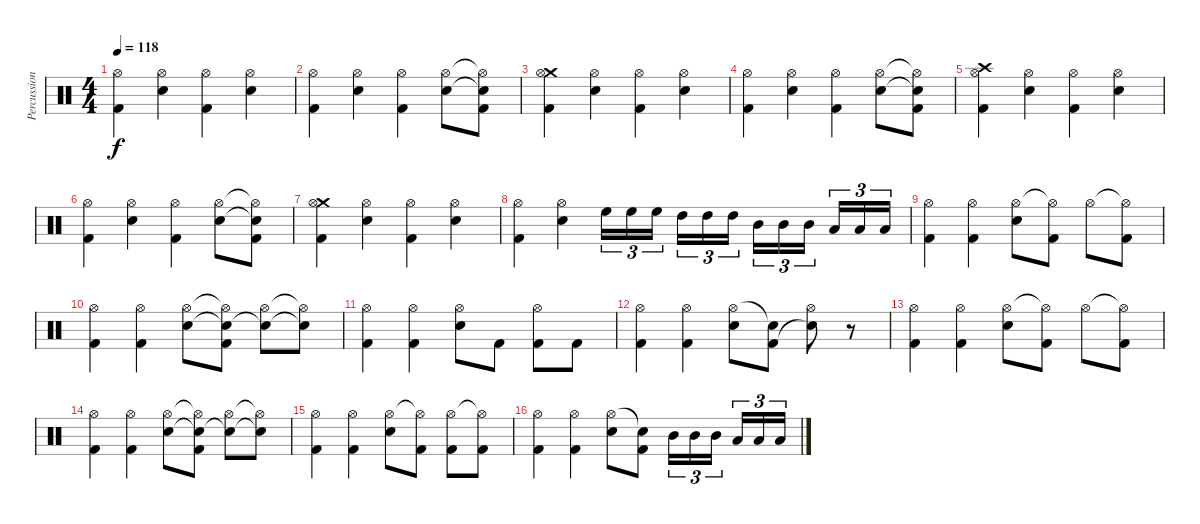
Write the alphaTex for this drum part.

\track ("Percussion" "Percussion") {instrument percussion}
\staff {score}
\articulation defaults
\ts (4 4)
\tempo 118
\clef neutral
\ks c
("Hi-Hat (open)" "Kick (hit) 2").4{dy f} ("Hi-Hat (open)" "Electric Snare (hit)").4 ("Hi-Hat (open)" "Kick (hit) 2").4 ("Hi-Hat (open)" "Electric Snare (hit)").4 |
("Hi-Hat (open)" "Kick (hit) 2").4 ("Hi-Hat (open)" "Electric Snare (hit)").4 ("Hi-Hat (open)" "Kick (hit) 2").4 ("Hi-Hat (open)" "Electric Snare (hit)").8 ("Hi-Hat (open)"{t} "Electric Snare (hit)"{t} "Kick (hit) 2").8 |
("Crash medium (hit)" "Hi-Hat (open)" "Kick (hit) 2").4 ("Hi-Hat (open)" "Electric Snare (hit)").4 ("Hi-Hat (open)" "Kick (hit) 2").4 ("Hi-Hat (open)" "Electric Snare (hit)").4 |
("Hi-Hat (open)" "Kick (hit) 2").4 ("Hi-Hat (open)" "Electric Snare (hit)").4 ("Hi-Hat (open)" "Kick (hit) 2").4 ("Hi-Hat (open)" "Electric Snare (hit)").8 ("Hi-Hat (open)"{t} "Electric Snare (hit)"{t} "Kick (hit) 2").8 |
("Crash high (hit)" "Hi-Hat (open)" "Kick (hit) 2").4 ("Hi-Hat (open)" "Electric Snare (hit)").4 ("Hi-Hat (open)" "Kick (hit) 2").4 ("Hi-Hat (open)" "Electric Snare (hit)").4 |
("Hi-Hat (open)" "Kick (hit) 2").4 ("Hi-Hat (open)" "Electric Snare (hit)").4 ("Hi-Hat (open)" "Kick (hit) 2").4 ("Hi-Hat (open)" "Electric Snare (hit)").8 ("Hi-Hat (open)"{t} "Electric Snare (hit)"{t} "Kick (hit) 2").8 |
("Crash medium (hit)" "Hi-Hat (open)" "Kick (hit) 2").4 ("Hi-Hat (open)" "Electric Snare (hit)").4 ("Hi-Hat (open)" "Kick (hit) 2").4 ("Hi-Hat (open)" "Electric Snare (hit)").4 |
("Hi-Hat (open)" "Kick (hit) 2").4 ("Hi-Hat (open)" "Electric Snare (hit)").4 "High Floor Tom (hit)".16{tu (3 2)} "High Floor Tom (hit)".16{tu (3 2)} "High Floor Tom (hit)".16{tu (3 2)} "High Tom (hit)".16{tu (3 2)} "High Tom (hit)".16{tu (3 2)} "High Tom (hit)".16{tu (3 2)} "Mid Tom (hit)".16{tu (3 2)} "Mid Tom (hit)".16{tu (3 2)} "Mid Tom (hit)".16{tu (3 2)} "Low Tom (hit)".16{tu (3 2)} "Low Tom (hit)".16{tu (3 2)} "Low Tom (hit)".16{tu (3 2)} |
("Hi-Hat (open)" "Kick (hit) 2").4 ("Hi-Hat (open)" "Kick (hit) 2").4 ("Hi-Hat (open)" "Electric Snare (hit)").8 ("Hi-Hat (open)"{t} "Kick (hit) 2").8 "Hi-Hat (open)".8 ("Hi-Hat (open)"{t} "Kick (hit) 2").8 |
("Hi-Hat (open)" "Kick (hit) 2").4 ("Hi-Hat (open)" "Kick (hit) 2").4 ("Hi-Hat (open)" "Electric Snare (hit)").8 ("Hi-Hat (open)"{t} "Electric Snare (hit)"{t} "Kick (hit) 2").8 ("Hi-Hat (open)" "Electric Snare (hit)"{t}).8 ("Hi-Hat (open)"{t} "Electric Snare (hit)"{t}).8 |
("Hi-Hat (open)" "Kick (hit) 2").4 ("Hi-Hat (open)" "Kick (hit) 2").4 ("Hi-Hat (open)" "Electric Snare (hit)").8 "Kick (hit) 2".8 ("Hi-Hat (open)" "Kick (hit) 2").8 "Kick (hit) 2".8 |
("Hi-Hat (open)" "Kick (hit) 2").4 ("Hi-Hat (open)" "Kick (hit) 2").4 ("Hi-Hat (open)" "Electric Snare (hit)").8 ("Electric Snare (hit)"{t} "Kick (hit) 2").8 ("Hi-Hat (open)" "Electric Snare (hit)"{t}).8 r.8 |
("Hi-Hat (open)" "Kick (hit) 2").4 ("Hi-Hat (open)" "Kick (hit) 2").4 ("Hi-Hat (open)" "Electric Snare (hit)").8 ("Hi-Hat (open)"{t} "Kick (hit) 2").8 "Hi-Hat (open)".8 ("Hi-Hat (open)"{t} "Kick (hit) 2").8 |
("Hi-Hat (open)" "Kick (hit) 2").4 ("Hi-Hat (open)" "Kick (hit) 2").4 ("Hi-Hat (open)" "Electric Snare (hit)").8 ("Hi-Hat (open)"{t} "Electric Snare (hit)"{t} "Kick (hit) 2").8 ("Hi-Hat (open)" "Electric Snare (hit)"{t}).8 ("Hi-Hat (open)"{t} "Electric Snare (hit)"{t}).8 |
("Hi-Hat (open)" "Kick (hit) 2").4 ("Hi-Hat (open)" "Kick (hit) 2").4 ("Hi-Hat (open)" "Electric Snare (hit)").8 ("Hi-Hat (open)"{t} "Kick (hit) 2").8 ("Hi-Hat (open)" "Kick (hit) 2").8 ("Hi-Hat (open)"{t} "Kick (hit) 2").8 |
("Hi-Hat (open)" "Kick (hit) 2").4 ("Hi-Hat (open)" "Kick (hit) 2").4 ("Hi-Hat (open)" "Electric Snare (hit)").8 ("Electric Snare (hit)"{t} "Kick (hit) 2").8 "Mid Tom (hit)".16{tu (3 2)} "Mid Tom (hit)".16{tu (3 2)} "Mid Tom (hit)".16{tu (3 2)} "Low Tom (hit)".16{tu (3 2)} "Low Tom (hit)".16{tu (3 2)} "Low Tom (hit)".16{tu (3 2)}
